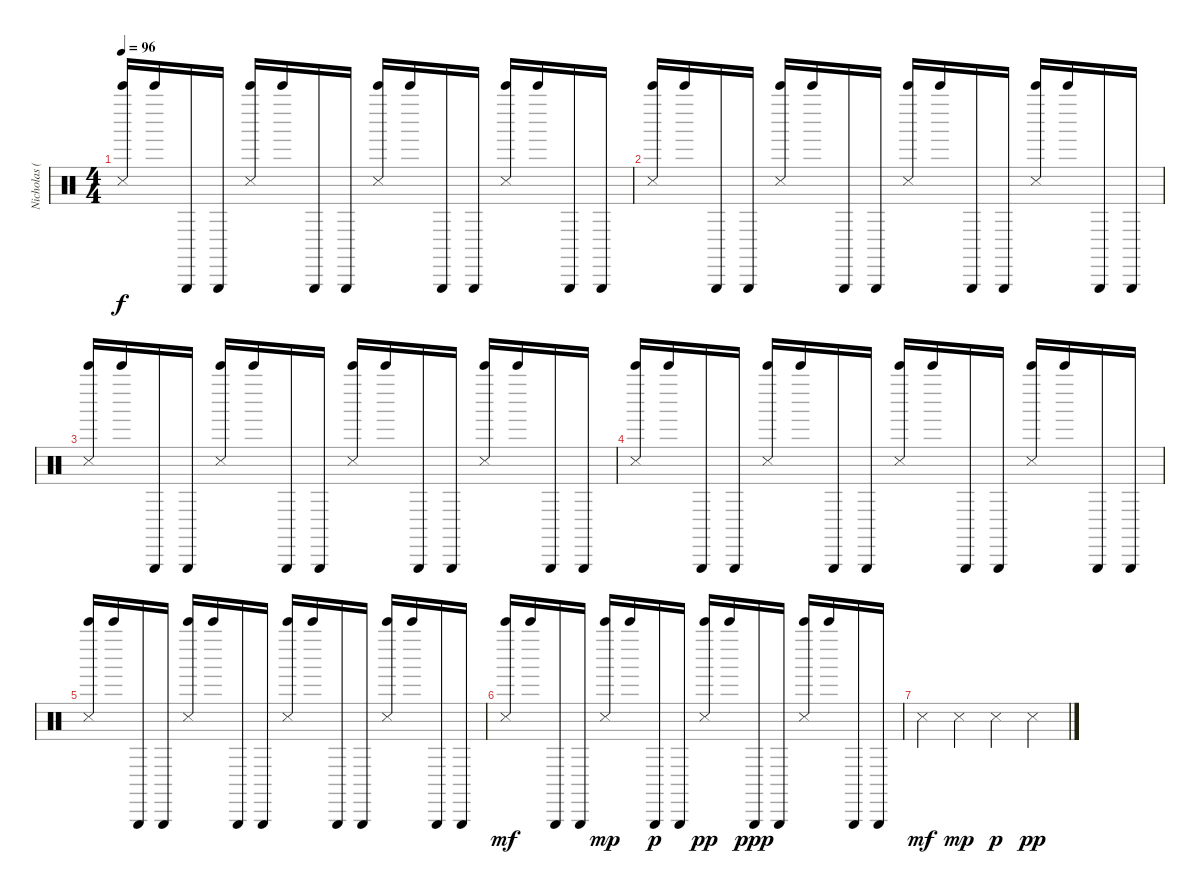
\track ("Nicholas (Drums)" "Nicholas (") {instrument percussion}
\staff {score}
\articulation defaults
\ts (4 4)
\tempo 96
\clef neutral
\ks c
("Bell Tree (hit)" "Snare (side stick) 3").16{dy f} "Bell Tree (hit)".16 "Triangle (hit)".16 "Triangle (hit)".16 ("Bell Tree (hit)" "Metronome (hit)").16 "Bell Tree (hit)".16 "Triangle (hit)".16 "Triangle (hit)".16 ("Bell Tree (hit)" "Snare (side stick) 3").16 "Bell Tree (hit)".16 "Triangle (hit)".16 "Triangle (hit)".16 ("Bell Tree (hit)" "Metronome (hit)").16 "Bell Tree (hit)".16 "Triangle (hit)".16 "Triangle (hit)".16 |
("Bell Tree (hit)" "Snare (side stick) 3").16 "Bell Tree (hit)".16 "Triangle (hit)".16 "Triangle (hit)".16 ("Bell Tree (hit)" "Metronome (hit)").16 "Bell Tree (hit)".16 "Triangle (hit)".16 "Triangle (hit)".16 ("Bell Tree (hit)" "Snare (side stick) 3").16 "Bell Tree (hit)".16 "Triangle (hit)".16 "Triangle (hit)".16 ("Bell Tree (hit)" "Metronome (hit)").16 "Bell Tree (hit)".16 "Triangle (hit)".16 "Triangle (hit)".16 |
("Bell Tree (hit)" "Snare (side stick) 3").16 "Bell Tree (hit)".16 "Triangle (hit)".16 "Triangle (hit)".16 ("Bell Tree (hit)" "Metronome (hit)").16 "Bell Tree (hit)".16 "Triangle (hit)".16 "Triangle (hit)".16 ("Bell Tree (hit)" "Snare (side stick) 3").16 "Bell Tree (hit)".16 "Triangle (hit)".16 "Triangle (hit)".16 ("Bell Tree (hit)" "Metronome (hit)").16 "Bell Tree (hit)".16 "Triangle (hit)".16 "Triangle (hit)".16 |
("Bell Tree (hit)" "Snare (side stick) 3").16 "Bell Tree (hit)".16 "Triangle (hit)".16 "Triangle (hit)".16 ("Bell Tree (hit)" "Metronome (hit)").16 "Bell Tree (hit)".16 "Triangle (hit)".16 "Triangle (hit)".16 ("Bell Tree (hit)" "Snare (side stick) 3").16 "Bell Tree (hit)".16 "Triangle (hit)".16 "Triangle (hit)".16 ("Bell Tree (hit)" "Metronome (hit)").16 "Bell Tree (hit)".16 "Triangle (hit)".16 "Triangle (hit)".16 |
("Bell Tree (hit)" "Snare (side stick) 3").16 "Bell Tree (hit)".16 "Triangle (hit)".16 "Triangle (hit)".16 ("Bell Tree (hit)" "Metronome (hit)").16 "Bell Tree (hit)".16 "Triangle (hit)".16 "Triangle (hit)".16 ("Bell Tree (hit)" "Snare (side stick) 3").16 "Bell Tree (hit)".16 "Triangle (hit)".16 "Triangle (hit)".16 ("Bell Tree (hit)" "Metronome (hit)").16 "Bell Tree (hit)".16 "Triangle (hit)".16 "Triangle (hit)".16 |
("Bell Tree (hit)" "Snare (side stick) 3").16{dy mf} "Bell Tree (hit)".16 "Triangle (hit)".16 "Triangle (hit)".16 ("Bell Tree (hit)" "Metronome (hit)").16{dy mp} "Bell Tree (hit)".16 "Triangle (hit)".16{dy p} "Triangle (hit)".16 ("Bell Tree (hit)" "Snare (side stick) 3").16{dy pp} "Bell Tree (hit)".16 "Triangle (hit)".16{dy ppp} "Triangle (hit)".16 ("Bell Tree (hit)" "Metronome (hit)").16 "Bell Tree (hit)".16 "Triangle (hit)".16 "Triangle (hit)".16 |
"Snare (side stick) 3".4{dy mf} "Metronome (hit)".4{dy mp} "Snare (side stick) 3".4{dy p} "Metronome (hit)".4{dy pp}
